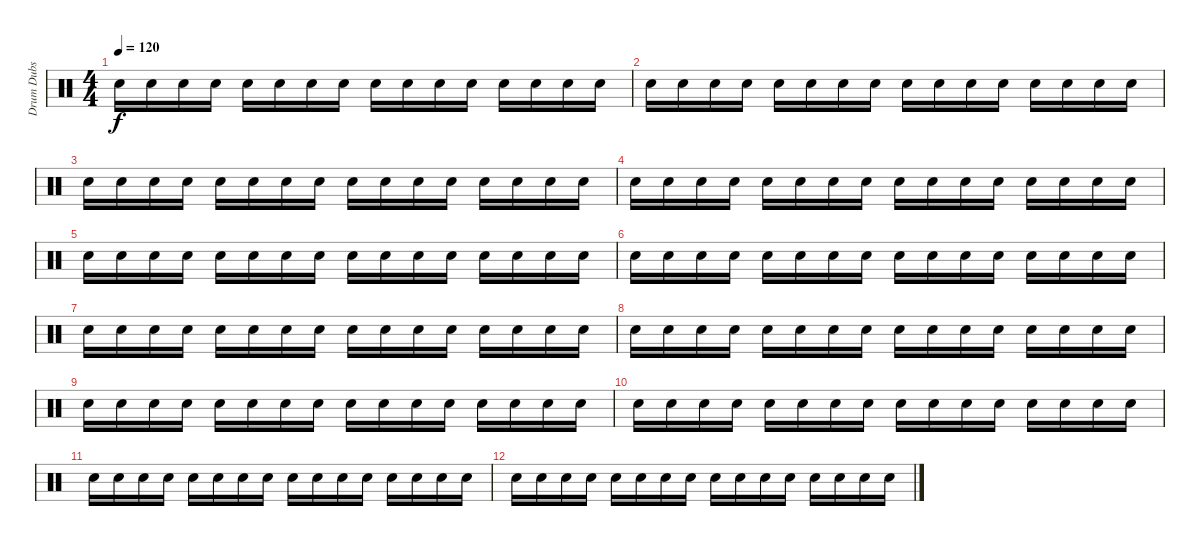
\track ("Drum Dubs" "Drum Dubs") {instrument percussion}
\staff {score}
\articulation defaults
\ts (4 4)
\tempo 120
\clef neutral
\ks c "Electric Snare (hit)".16{dy f} "Electric Snare (hit)".16 "Electric Snare (hit)".16 "Electric Snare (hit)".16 "Electric Snare (hit)".16 "Electric Snare (hit)".16 "Electric Snare (hit)".16 "Electric Snare (hit)".16 "Electric Snare (hit)".16 "Electric Snare (hit)".16 "Electric Snare (hit)".16 "Electric Snare (hit)".16 "Electric Snare (hit)".16 "Electric Snare (hit)".16 "Electric Snare (hit)".16 "Electric Snare (hit)".16
|
"Electric Snare (hit)".16 "Electric Snare (hit)".16 "Electric Snare (hit)".16 "Electric Snare (hit)".16 "Electric Snare (hit)".16 "Electric Snare (hit)".16 "Electric Snare (hit)".16 "Electric Snare (hit)".16 "Electric Snare (hit)".16 "Electric Snare (hit)".16 "Electric Snare (hit)".16 "Electric Snare (hit)".16 "Electric Snare (hit)".16 "Electric Snare (hit)".16 "Electric Snare (hit)".16 "Electric Snare (hit)".16 |
"Electric Snare (hit)".16 "Electric Snare (hit)".16 "Electric Snare (hit)".16 "Electric Snare (hit)".16 "Electric Snare (hit)".16 "Electric Snare (hit)".16 "Electric Snare (hit)".16 "Electric Snare (hit)".16 "Electric Snare (hit)".16 "Electric Snare (hit)".16 "Electric Snare (hit)".16 "Electric Snare (hit)".16 "Electric Snare (hit)".16 "Electric Snare (hit)".16 "Electric Snare (hit)".16 "Electric Snare (hit)".16 |
"Electric Snare (hit)".16 "Electric Snare (hit)".16 "Electric Snare (hit)".16 "Electric Snare (hit)".16 "Electric Snare (hit)".16 "Electric Snare (hit)".16 "Electric Snare (hit)".16 "Electric Snare (hit)".16 "Electric Snare (hit)".16 "Electric Snare (hit)".16 "Electric Snare (hit)".16 "Electric Snare (hit)".16 "Electric Snare (hit)".16 "Electric Snare (hit)".16 "Electric Snare (hit)".16 "Electric Snare (hit)".16 |
"Electric Snare (hit)".16 "Electric Snare (hit)".16 "Electric Snare (hit)".16 "Electric Snare (hit)".16 "Electric Snare (hit)".16 "Electric Snare (hit)".16 "Electric Snare (hit)".16 "Electric Snare (hit)".16 "Electric Snare (hit)".16 "Electric Snare (hit)".16 "Electric Snare (hit)".16 "Electric Snare (hit)".16 "Electric Snare (hit)".16 "Electric Snare (hit)".16 "Electric Snare (hit)".16 "Electric Snare (hit)".16 |
"Electric Snare (hit)".16 "Electric Snare (hit)".16 "Electric Snare (hit)".16 "Electric Snare (hit)".16 "Electric Snare (hit)".16 "Electric Snare (hit)".16 "Electric Snare (hit)".16 "Electric Snare (hit)".16 "Electric Snare (hit)".16 "Electric Snare (hit)".16 "Electric Snare (hit)".16 "Electric Snare (hit)".16 "Electric Snare (hit)".16 "Electric Snare (hit)".16 "Electric Snare (hit)".16 "Electric Snare (hit)".16 |
"Electric Snare (hit)".16 "Electric Snare (hit)".16 "Electric Snare (hit)".16 "Electric Snare (hit)".16 "Electric Snare (hit)".16 "Electric Snare (hit)".16 "Electric Snare (hit)".16 "Electric Snare (hit)".16 "Electric Snare (hit)".16 "Electric Snare (hit)".16 "Electric Snare (hit)".16 "Electric Snare (hit)".16 "Electric Snare (hit)".16 "Electric Snare (hit)".16 "Electric Snare (hit)".16 "Electric Snare (hit)".16 |
"Electric Snare (hit)".16 "Electric Snare (hit)".16 "Electric Snare (hit)".16 "Electric Snare (hit)".16 "Electric Snare (hit)".16 "Electric Snare (hit)".16 "Electric Snare (hit)".16 "Electric Snare (hit)".16 "Electric Snare (hit)".16 "Electric Snare (hit)".16 "Electric Snare (hit)".16 "Electric Snare (hit)".16 "Electric Snare (hit)".16 "Electric Snare (hit)".16 "Electric Snare (hit)".16 "Electric Snare (hit)".16 |
"Electric Snare (hit)".16 "Electric Snare (hit)".16 "Electric Snare (hit)".16 "Electric Snare (hit)".16 "Electric Snare (hit)".16 "Electric Snare (hit)".16 "Electric Snare (hit)".16 "Electric Snare (hit)".16 "Electric Snare (hit)".16 "Electric Snare (hit)".16 "Electric Snare (hit)".16 "Electric Snare (hit)".16 "Electric Snare (hit)".16 "Electric Snare (hit)".16 "Electric Snare (hit)".16 "Electric Snare (hit)".16 |
"Electric Snare (hit)".16 "Electric Snare (hit)".16 "Electric Snare (hit)".16 "Electric Snare (hit)".16 "Electric Snare (hit)".16 "Electric Snare (hit)".16 "Electric Snare (hit)".16 "Electric Snare (hit)".16 "Electric Snare (hit)".16 "Electric Snare (hit)".16 "Electric Snare (hit)".16 "Electric Snare (hit)".16 "Electric Snare (hit)".16 "Electric Snare (hit)".16 "Electric Snare (hit)".16 "Electric Snare (hit)".16 |
"Electric Snare (hit)".16 "Electric Snare (hit)".16 "Electric Snare (hit)".16 "Electric Snare (hit)".16 "Electric Snare (hit)".16 "Electric Snare (hit)".16 "Electric Snare (hit)".16 "Electric Snare (hit)".16 "Electric Snare (hit)".16 "Electric Snare (hit)".16 "Electric Snare (hit)".16 "Electric Snare (hit)".16 "Electric Snare (hit)".16 "Electric Snare (hit)".16 "Electric Snare (hit)".16 "Electric Snare (hit)".16 |
"Electric Snare (hit)".16 "Electric Snare (hit)".16 "Electric Snare (hit)".16 "Electric Snare (hit)".16 "Electric Snare (hit)".16 "Electric Snare (hit)".16 "Electric Snare (hit)".16 "Electric Snare (hit)".16 "Electric Snare (hit)".16 "Electric Snare (hit)".16 "Electric Snare (hit)".16 "Electric Snare (hit)".16 "Electric Snare (hit)".16 "Electric Snare (hit)".16 "Electric Snare (hit)".16 "Electric Snare (hit)".16
